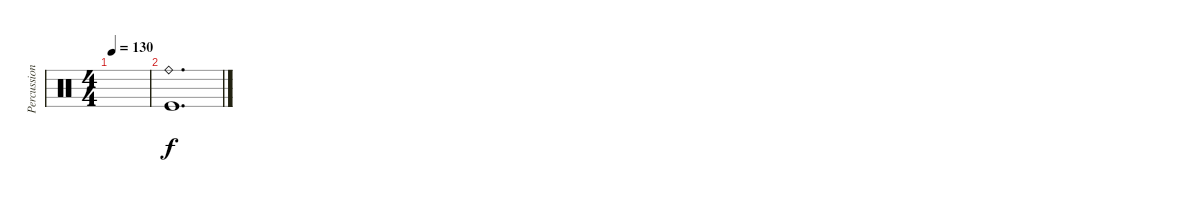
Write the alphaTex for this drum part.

\track ("Percussion" "Percussion") {instrument percussion}
\staff {score}
\articulation defaults
\ts (4 4)
\tempo 130
\clef neutral
\ks c
|
("Ride (bell)" "Kick (hit)").1{d}
